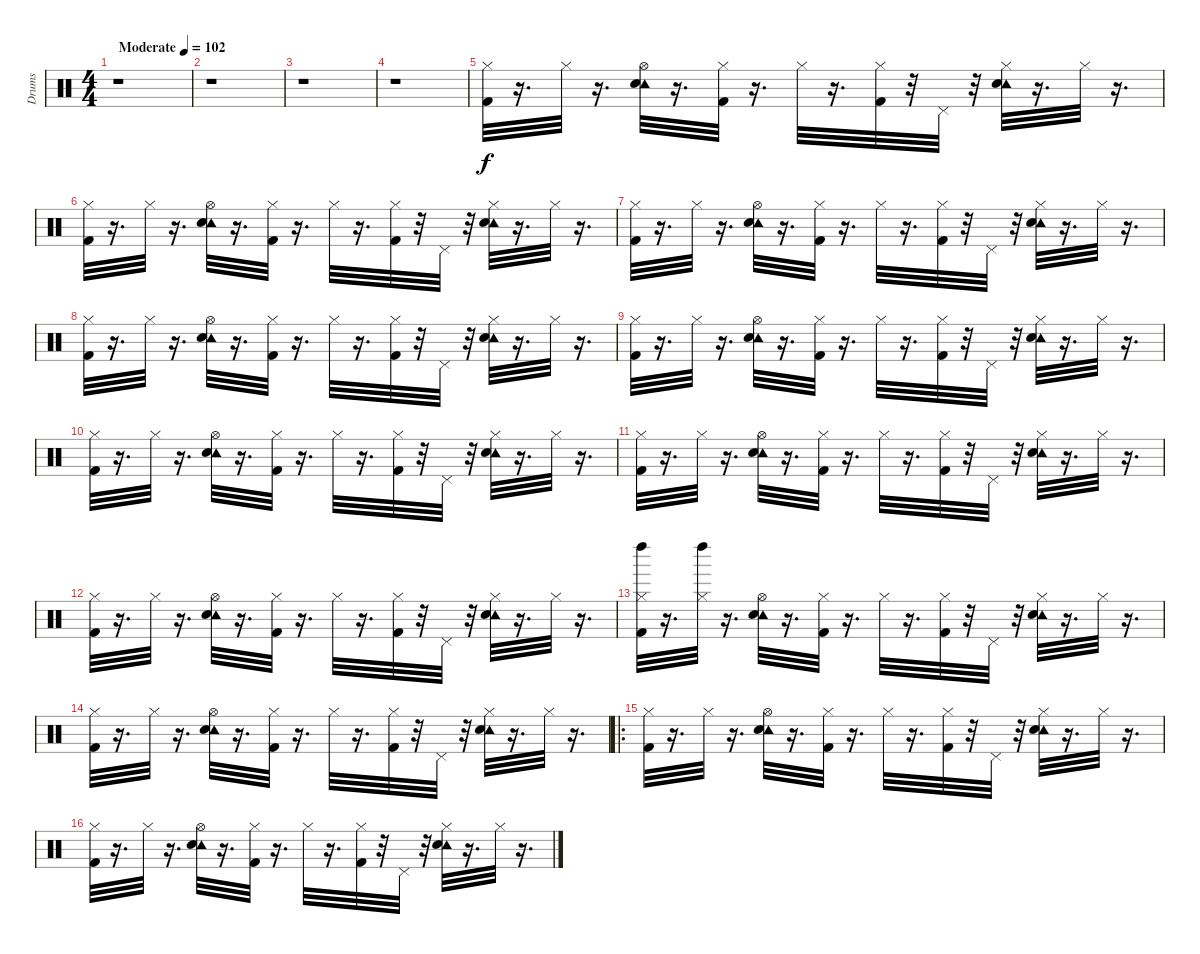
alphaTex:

\track ("Drums" "Drums") {instrument percussion}
\staff {score}
\articulation defaults
\ts (4 4)
\tempo (102 "Moderate")
\clef neutral
\ks c
r.1{dy f} |
r.1 |
r.1 |
r.1 |
("Hi-Hat (closed)" "Kick (hit) 2").32 r.16{d} "Hi-Hat (closed)".32 r.16{d} ("Tambourine (hit)" "Hi-Hat (open)" "Electric Snare (hit)").32 r.16{d} ("Hi-Hat (closed)" "Kick (hit) 2").32 r.16{d} "Hi-Hat (closed)".32 r.16{d} ("Hi-Hat (closed)" "Kick (hit) 2").32 r.32 "Pedal Hi-Hat (hit)".32 r.32 ("Tambourine (hit)" "Hi-Hat (closed)" "Electric Snare (hit)").32 r.16{d} "Hi-Hat (closed)".32 r.16{d} |
("Hi-Hat (closed)" "Kick (hit) 2").32 r.16{d} "Hi-Hat (closed)".32 r.16{d} ("Tambourine (hit)" "Hi-Hat (open)" "Electric Snare (hit)").32 r.16{d} ("Hi-Hat (closed)" "Kick (hit) 2").32 r.16{d} "Hi-Hat (closed)".32 r.16{d} ("Hi-Hat (closed)" "Kick (hit) 2").32 r.32 "Pedal Hi-Hat (hit)".32 r.32 ("Tambourine (hit)" "Hi-Hat (closed)" "Electric Snare (hit)").32 r.16{d} "Hi-Hat (closed)".32 r.16{d} |
("Hi-Hat (closed)" "Kick (hit) 2").32 r.16{d} "Hi-Hat (closed)".32 r.16{d} ("Tambourine (hit)" "Hi-Hat (open)" "Electric Snare (hit)").32 r.16{d} ("Hi-Hat (closed)" "Kick (hit) 2").32 r.16{d} "Hi-Hat (closed)".32 r.16{d} ("Hi-Hat (closed)" "Kick (hit) 2").32 r.32 "Pedal Hi-Hat (hit)".32 r.32 ("Tambourine (hit)" "Hi-Hat (closed)" "Electric Snare (hit)").32 r.16{d} "Hi-Hat (closed)".32 r.16{d} |
("Hi-Hat (closed)" "Kick (hit) 2").32 r.16{d} "Hi-Hat (closed)".32 r.16{d} ("Tambourine (hit)" "Hi-Hat (open)" "Electric Snare (hit)").32 r.16{d} ("Hi-Hat (closed)" "Kick (hit) 2").32 r.16{d} "Hi-Hat (closed)".32 r.16{d} ("Hi-Hat (closed)" "Kick (hit) 2").32 r.32 "Pedal Hi-Hat (hit)".32 r.32 ("Tambourine (hit)" "Hi-Hat (closed)" "Electric Snare (hit)").32 r.16{d} "Hi-Hat (closed)".32 r.16{d} |
("Hi-Hat (closed)" "Kick (hit) 2").32 r.16{d} "Hi-Hat (closed)".32 r.16{d} ("Tambourine (hit)" "Hi-Hat (open)" "Electric Snare (hit)").32 r.16{d} ("Hi-Hat (closed)" "Kick (hit) 2").32 r.16{d} "Hi-Hat (closed)".32 r.16{d} ("Hi-Hat (closed)" "Kick (hit) 2").32 r.32 "Pedal Hi-Hat (hit)".32 r.32 ("Tambourine (hit)" "Hi-Hat (closed)" "Electric Snare (hit)").32 r.16{d} "Hi-Hat (closed)".32 r.16{d} |
("Hi-Hat (closed)" "Kick (hit) 2").32 r.16{d} "Hi-Hat (closed)".32 r.16{d} ("Tambourine (hit)" "Hi-Hat (open)" "Electric Snare (hit)").32 r.16{d} ("Hi-Hat (closed)" "Kick (hit) 2").32 r.16{d} "Hi-Hat (closed)".32 r.16{d} ("Hi-Hat (closed)" "Kick (hit) 2").32 r.32 "Pedal Hi-Hat (hit)".32 r.32 ("Tambourine (hit)" "Hi-Hat (closed)" "Electric Snare (hit)").32 r.16{d} "Hi-Hat (closed)".32 r.16{d} |
("Hi-Hat (closed)" "Kick (hit) 2").32 r.16{d} "Hi-Hat (closed)".32 r.16{d} ("Tambourine (hit)" "Hi-Hat (open)" "Electric Snare (hit)").32 r.16{d} ("Hi-Hat (closed)" "Kick (hit) 2").32 r.16{d} "Hi-Hat (closed)".32 r.16{d} ("Hi-Hat (closed)" "Kick (hit) 2").32 r.32 "Pedal Hi-Hat (hit)".32 r.32 ("Tambourine (hit)" "Hi-Hat (closed)" "Electric Snare (hit)").32 r.16{d} "Hi-Hat (closed)".32 r.16{d} |
("Hi-Hat (closed)" "Kick (hit) 2").32 r.16{d} "Hi-Hat (closed)".32 r.16{d} ("Tambourine (hit)" "Hi-Hat (open)" "Electric Snare (hit)").32 r.16{d} ("Hi-Hat (closed)" "Kick (hit) 2").32 r.16{d} "Hi-Hat (closed)".32 r.16{d} ("Hi-Hat (closed)" "Kick (hit) 2").32 r.32 "Pedal Hi-Hat (hit)".32 r.32 ("Tambourine (hit)" "Hi-Hat (closed)" "Electric Snare (hit)").32 r.16{d} "Hi-Hat (closed)".32 r.16{d} |
("Left Maraca (hit)" "Hi-Hat (closed)" "Kick (hit) 2").32 r.16{d} ("Left Maraca (hit)" "Hi-Hat (closed)").32 r.16{d} ("Tambourine (hit)" "Hi-Hat (open)" "Electric Snare (hit)").32 r.16{d} ("Hi-Hat (closed)" "Kick (hit) 2").32 r.16{d} "Hi-Hat (closed)".32 r.16{d} ("Hi-Hat (closed)" "Kick (hit) 2").32 r.32 "Pedal Hi-Hat (hit)".32 r.32 ("Tambourine (hit)" "Hi-Hat (closed)" "Electric Snare (hit)").32 r.16{d} "Hi-Hat (closed)".32 r.16{d} |
("Hi-Hat (closed)" "Kick (hit) 2").32 r.16{d} "Hi-Hat (closed)".32 r.16{d} ("Tambourine (hit)" "Hi-Hat (open)" "Electric Snare (hit)").32 r.16{d} ("Hi-Hat (closed)" "Kick (hit) 2").32 r.16{d} "Hi-Hat (closed)".32 r.16{d} ("Hi-Hat (closed)" "Kick (hit) 2").32 r.32 "Pedal Hi-Hat (hit)".32 r.32 ("Tambourine (hit)" "Hi-Hat (closed)" "Electric Snare (hit)").32 r.16{d} "Hi-Hat (closed)".32 r.16{d} |
\ro
("Hi-Hat (closed)" "Kick (hit) 2").32 r.16{d} "Hi-Hat (closed)".32 r.16{d} ("Tambourine (hit)" "Hi-Hat (open)" "Electric Snare (hit)").32 r.16{d} ("Hi-Hat (closed)" "Kick (hit) 2").32 r.16{d} "Hi-Hat (closed)".32 r.16{d} ("Hi-Hat (closed)" "Kick (hit) 2").32 r.32 "Pedal Hi-Hat (hit)".32 r.32 ("Tambourine (hit)" "Hi-Hat (closed)" "Electric Snare (hit)").32 r.16{d} "Hi-Hat (closed)".32 r.16{d} |
("Hi-Hat (closed)" "Kick (hit) 2").32 r.16{d} "Hi-Hat (closed)".32 r.16{d} ("Tambourine (hit)" "Hi-Hat (open)" "Electric Snare (hit)").32 r.16{d} ("Hi-Hat (closed)" "Kick (hit) 2").32 r.16{d} "Hi-Hat (closed)".32 r.16{d} ("Hi-Hat (closed)" "Kick (hit) 2").32 r.32 "Pedal Hi-Hat (hit)".32 r.32 ("Tambourine (hit)" "Hi-Hat (closed)" "Electric Snare (hit)").32 r.16{d} "Hi-Hat (closed)".32 r.16{d}
